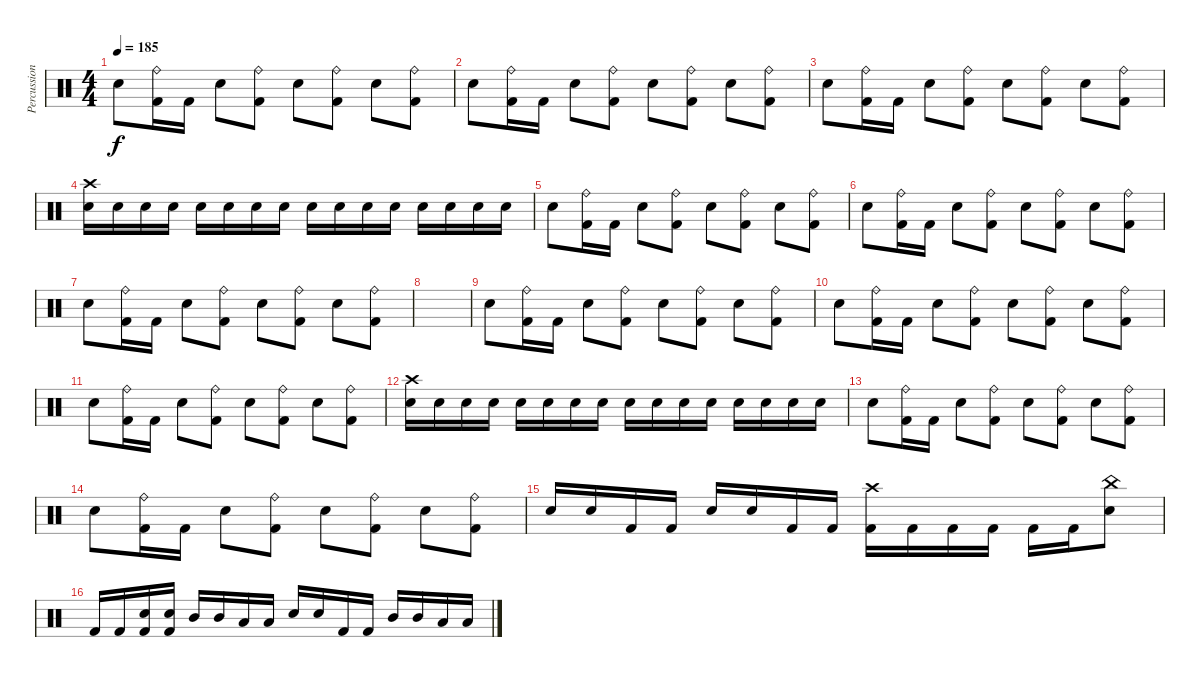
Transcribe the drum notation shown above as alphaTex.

\track ("Percussion" "Percussion") {instrument percussion}
\staff {score}
\articulation defaults
\ts (4 4)
\tempo 185
\clef neutral
\ks c "Snare (hit) 2".8{dy f}
("Ride (bell)" "Kick (hit) 2").16 "Kick (hit) 2".16 "Snare (hit) 2".8 ("Ride (bell)" "Kick (hit) 2").8 "Snare (hit) 2".8 ("Ride (bell)" "Kick (hit) 2").8 "Snare (hit) 2".8 ("Ride (bell)" "Kick (hit) 2").8 |
"Snare (hit) 2".8 ("Ride (bell)" "Kick (hit) 2").16 "Kick (hit) 2".16 "Snare (hit) 2".8 ("Ride (bell)" "Kick (hit) 2").8 "Snare (hit) 2".8 ("Ride (bell)" "Kick (hit) 2").8 "Snare (hit) 2".8 ("Ride (bell)" "Kick (hit) 2").8 |
"Snare (hit) 2".8 ("Ride (bell)" "Kick (hit) 2").16 "Kick (hit) 2".16 "Snare (hit) 2".8 ("Ride (bell)" "Kick (hit) 2").8 "Snare (hit) 2".8 ("Ride (bell)" "Kick (hit) 2").8 "Snare (hit) 2".8 ("Ride (bell)" "Kick (hit) 2").8 |
("Crash high (hit)" "Snare (hit) 2").16 "Snare (hit) 2".16 "Snare (hit) 2".16 "Snare (hit) 2".16 "Snare (hit) 2".16 "Snare (hit) 2".16 "Snare (hit) 2".16 "Snare (hit) 2".16 "Snare (hit) 2".16 "Snare (hit) 2".16 "Snare (hit) 2".16 "Snare (hit) 2".16 "Snare (hit) 2".16 "Snare (hit) 2".16 "Snare (hit) 2".16 "Snare (hit) 2".16 |
"Snare (hit) 2".8 ("Ride (bell)" "Kick (hit) 2").16 "Kick (hit) 2".16 "Snare (hit) 2".8 ("Ride (bell)" "Kick (hit) 2").8 "Snare (hit) 2".8 ("Ride (bell)" "Kick (hit) 2").8 "Snare (hit) 2".8 ("Ride (bell)" "Kick (hit) 2").8 |
"Snare (hit) 2".8 ("Ride (bell)" "Kick (hit) 2").16 "Kick (hit) 2".16 "Snare (hit) 2".8 ("Ride (bell)" "Kick (hit) 2").8 "Snare (hit) 2".8 ("Ride (bell)" "Kick (hit) 2").8 "Snare (hit) 2".8 ("Ride (bell)" "Kick (hit) 2").8 |
"Snare (hit) 2".8 ("Ride (bell)" "Kick (hit) 2").16 "Kick (hit) 2".16 "Snare (hit) 2".8 ("Ride (bell)" "Kick (hit) 2").8 "Snare (hit) 2".8 ("Ride (bell)" "Kick (hit) 2").8 "Snare (hit) 2".8 ("Ride (bell)" "Kick (hit) 2").8 |
|
"Snare (hit) 2".8 ("Ride (bell)" "Kick (hit) 2").16 "Kick (hit) 2".16 "Snare (hit) 2".8 ("Ride (bell)" "Kick (hit) 2").8 "Snare (hit) 2".8 ("Ride (bell)" "Kick (hit) 2").8 "Snare (hit) 2".8 ("Ride (bell)" "Kick (hit) 2").8 |
"Snare (hit) 2".8 ("Ride (bell)" "Kick (hit) 2").16 "Kick (hit) 2".16 "Snare (hit) 2".8 ("Ride (bell)" "Kick (hit) 2").8 "Snare (hit) 2".8 ("Ride (bell)" "Kick (hit) 2").8 "Snare (hit) 2".8 ("Ride (bell)" "Kick (hit) 2").8 |
"Snare (hit) 2".8 ("Ride (bell)" "Kick (hit) 2").16 "Kick (hit) 2".16 "Snare (hit) 2".8 ("Ride (bell)" "Kick (hit) 2").8 "Snare (hit) 2".8 ("Ride (bell)" "Kick (hit) 2").8 "Snare (hit) 2".8 ("Ride (bell)" "Kick (hit) 2").8 |
("Crash high (hit)" "Snare (hit) 2").16 "Snare (hit) 2".16 "Snare (hit) 2".16 "Snare (hit) 2".16 "Snare (hit) 2".16 "Snare (hit) 2".16 "Snare (hit) 2".16 "Snare (hit) 2".16 "Snare (hit) 2".16 "Snare (hit) 2".16 "Snare (hit) 2".16 "Snare (hit) 2".16 "Snare (hit) 2".16 "Snare (hit) 2".16 "Snare (hit) 2".16 "Snare (hit) 2".16 |
"Snare (hit) 2".8 ("Ride (bell)" "Kick (hit) 2").16 "Kick (hit) 2".16 "Snare (hit) 2".8 ("Ride (bell)" "Kick (hit) 2").8 "Snare (hit) 2".8 ("Ride (bell)" "Kick (hit) 2").8 "Snare (hit) 2".8 ("Ride (bell)" "Kick (hit) 2").8 |
"Snare (hit) 2".8 ("Ride (bell)" "Kick (hit) 2").16 "Kick (hit) 2".16 "Snare (hit) 2".8 ("Ride (bell)" "Kick (hit) 2").8 "Snare (hit) 2".8 ("Ride (bell)" "Kick (hit) 2").8 "Snare (hit) 2".8 ("Ride (bell)" "Kick (hit) 2").8 |
"Snare (hit) 2".16 "Snare (hit) 2".16 "Kick (hit) 2".16 "Kick (hit) 2".16 "Snare (hit) 2".16 "Snare (hit) 2".16 "Kick (hit) 2".16 "Kick (hit) 2".16 ("Crash high (hit)" "Kick (hit) 2").16 "Kick (hit) 2".16 "Kick (hit) 2".16 "Kick (hit) 2".16 "Kick (hit) 2".16 "Kick (hit) 2".16 ("Snare (hit) 2" "China (hit)").8 |
"Kick (hit) 2".16 "Kick (hit) 2".16 ("Snare (hit) 2" "Kick (hit) 2").16 ("Snare (hit) 2" "Kick (hit) 2").16 "Mid Tom (hit)".16 "Mid Tom (hit)".16 "Low Tom (hit)".16 "Low Tom (hit)".16 "Snare (hit) 2".16 "Snare (hit) 2".16 "Kick (hit) 2".16 "Kick (hit) 2".16 "Mid Tom (hit)".16 "Mid Tom (hit)".16 "Low Tom (hit)".16 "Low Tom (hit)".16
